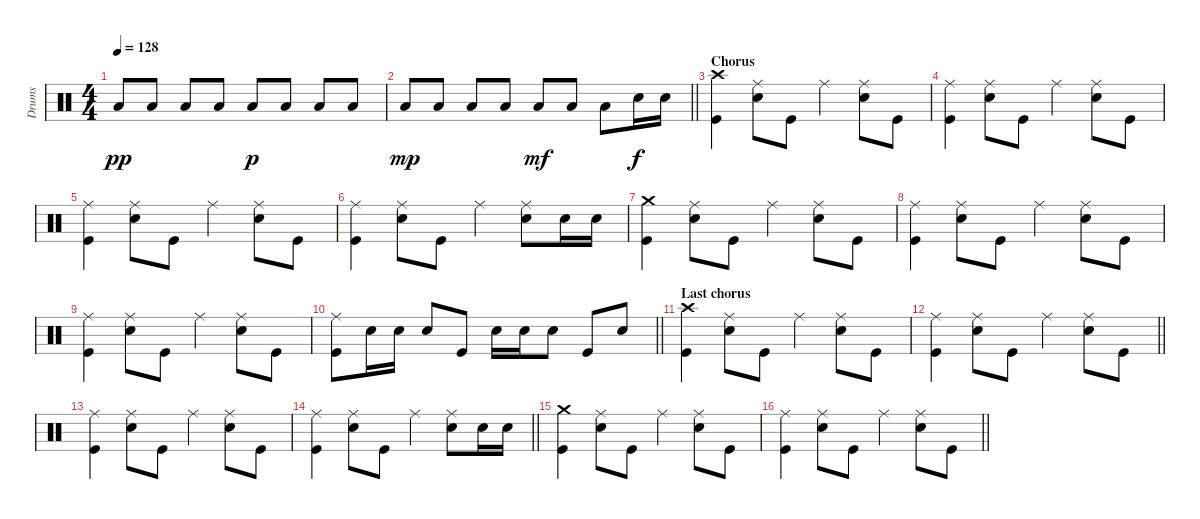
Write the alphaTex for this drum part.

\track ("Drums" "Drums") {instrument percussion}
\staff {score}
\articulation defaults
\ts (4 4)
\tempo 128
\clef neutral
\ks c "Low Tom (hit)".8{dy pp} "Low Tom (hit)".8 "Low Tom (hit)".8 "Low Tom (hit)".8 "Low Tom (hit)".8{dy p} "Low Tom (hit)".8 "Low Tom (hit)".8 "Low Tom (hit)".8
|
\barLineRight lightlight "Low Tom (hit)".8{dy mp} "Low Tom (hit)".8 "Low Tom (hit)".8 "Low Tom (hit)".8 "Low Tom (hit)".8{dy mf} "Low Tom (hit)".8 "Low Tom (hit)".8 "Snare (hit) 2".16{dy f} "Snare (hit) 2".16
|
\section ("" "Chorus")
("Crash high (hit)" "Kick (hit)").4 ("Snare (hit) 2" "Ride (middle)").8 "Kick (hit)".8 "Ride (middle)".4 ("Snare (hit) 2" "Ride (middle)").8 "Kick (hit)".8 |
("Ride (middle)" "Kick (hit)").4 ("Snare (hit) 2" "Ride (middle)").8 "Kick (hit)".8 "Ride (middle)".4 ("Snare (hit) 2" "Ride (middle)").8 "Kick (hit)".8 |
("Ride (middle)" "Kick (hit)").4 ("Snare (hit) 2" "Ride (middle)").8 "Kick (hit)".8 "Ride (middle)".4 ("Snare (hit) 2" "Ride (middle)").8 "Kick (hit)".8 |
("Ride (middle)" "Kick (hit)").4 ("Snare (hit) 2" "Ride (middle)").8 "Kick (hit)".8 "Ride (middle)".4 ("Snare (hit) 2" "Ride (middle)").8 "Snare (hit) 2".16 "Snare (hit) 2".16 |
("Crash medium (hit)" "Kick (hit)").4 ("Snare (hit) 2" "Ride (middle)").8 "Kick (hit)".8 "Ride (middle)".4 ("Snare (hit) 2" "Ride (middle)").8 "Kick (hit)".8 |
("Ride (middle)" "Kick (hit)").4 ("Snare (hit) 2" "Ride (middle)").8 "Kick (hit)".8 "Ride (middle)".4 ("Snare (hit) 2" "Ride (middle)").8 "Kick (hit)".8 |
("Ride (middle)" "Kick (hit)").4 ("Snare (hit) 2" "Ride (middle)").8 "Kick (hit)".8 "Ride (middle)".4 ("Snare (hit) 2" "Ride (middle)").8 "Kick (hit)".8 |
\barLineRight lightlight
("Kick (hit)" "Ride (middle)").8 "Snare (hit) 2".16 "Snare (hit) 2".16 "Snare (hit) 2".8 "Kick (hit)".8 "Snare (hit) 2".16 "Snare (hit) 2".16 "Snare (hit) 2".8 "Kick (hit)".8 "Snare (hit) 2".8 |
\section ("" "Last chorus")
("Crash high (hit)" "Kick (hit)").4 ("Snare (hit) 2" "Ride (middle)").8 "Kick (hit)".8 "Ride (middle)".4 ("Snare (hit) 2" "Ride (middle)").8 "Kick (hit)".8 |
\barLineRight lightlight
("Ride (middle)" "Kick (hit)").4 ("Snare (hit) 2" "Ride (middle)").8 "Kick (hit)".8 "Ride (middle)".4 ("Snare (hit) 2" "Ride (middle)").8 "Kick (hit)".8 |
("Ride (middle)" "Kick (hit)").4 ("Snare (hit) 2" "Ride (middle)").8 "Kick (hit)".8 "Ride (middle)".4 ("Snare (hit) 2" "Ride (middle)").8 "Kick (hit)".8 |
\barLineRight lightlight
("Ride (middle)" "Kick (hit)").4 ("Snare (hit) 2" "Ride (middle)").8 "Kick (hit)".8 "Ride (middle)".4 ("Snare (hit) 2" "Ride (middle)").8 "Snare (hit) 2".16 "Snare (hit) 2".16 |
("Crash medium (hit)" "Kick (hit)").4 ("Snare (hit) 2" "Ride (middle)").8 "Kick (hit)".8 "Ride (middle)".4 ("Snare (hit) 2" "Ride (middle)").8 "Kick (hit)".8 |
\barLineRight lightlight
("Ride (middle)" "Kick (hit)").4 ("Snare (hit) 2" "Ride (middle)").8 "Kick (hit)".8 "Ride (middle)".4 ("Snare (hit) 2" "Ride (middle)").8 "Kick (hit)".8
